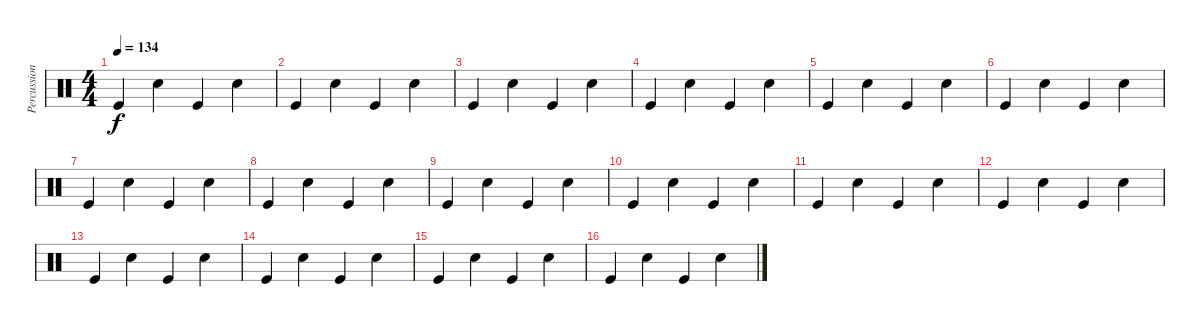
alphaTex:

\track ("Percussions" "Percussion") {instrument percussion}
\staff {score}
\articulation defaults
\ts (4 4)
\tempo 134
\clef neutral
\ks c "Kick (hit)".4{dy f} "Snare (hit) 2".4 "Kick (hit)".4 "Snare (hit) 2".4
|
"Kick (hit)".4 "Snare (hit) 2".4 "Kick (hit)".4 "Snare (hit) 2".4 |
"Kick (hit)".4 "Snare (hit) 2".4 "Kick (hit)".4 "Snare (hit) 2".4 |
"Kick (hit)".4 "Snare (hit) 2".4 "Kick (hit)".4 "Snare (hit) 2".4 |
"Kick (hit)".4 "Snare (hit) 2".4 "Kick (hit)".4 "Snare (hit) 2".4 |
"Kick (hit)".4 "Snare (hit) 2".4 "Kick (hit)".4 "Snare (hit) 2".4 |
"Kick (hit)".4 "Snare (hit) 2".4 "Kick (hit)".4 "Snare (hit) 2".4 |
"Kick (hit)".4 "Snare (hit) 2".4 "Kick (hit)".4 "Snare (hit) 2".4 |
"Kick (hit)".4 "Snare (hit) 2".4 "Kick (hit)".4 "Snare (hit) 2".4 |
"Kick (hit)".4 "Snare (hit) 2".4 "Kick (hit)".4 "Snare (hit) 2".4 |
"Kick (hit)".4 "Snare (hit) 2".4 "Kick (hit)".4 "Snare (hit) 2".4 |
"Kick (hit)".4 "Snare (hit) 2".4 "Kick (hit)".4 "Snare (hit) 2".4 |
"Kick (hit)".4 "Snare (hit) 2".4 "Kick (hit)".4 "Snare (hit) 2".4 |
"Kick (hit)".4 "Snare (hit) 2".4 "Kick (hit)".4 "Snare (hit) 2".4 |
"Kick (hit)".4 "Snare (hit) 2".4 "Kick (hit)".4 "Snare (hit) 2".4 |
"Kick (hit)".4 "Snare (hit) 2".4 "Kick (hit)".4 "Snare (hit) 2".4
